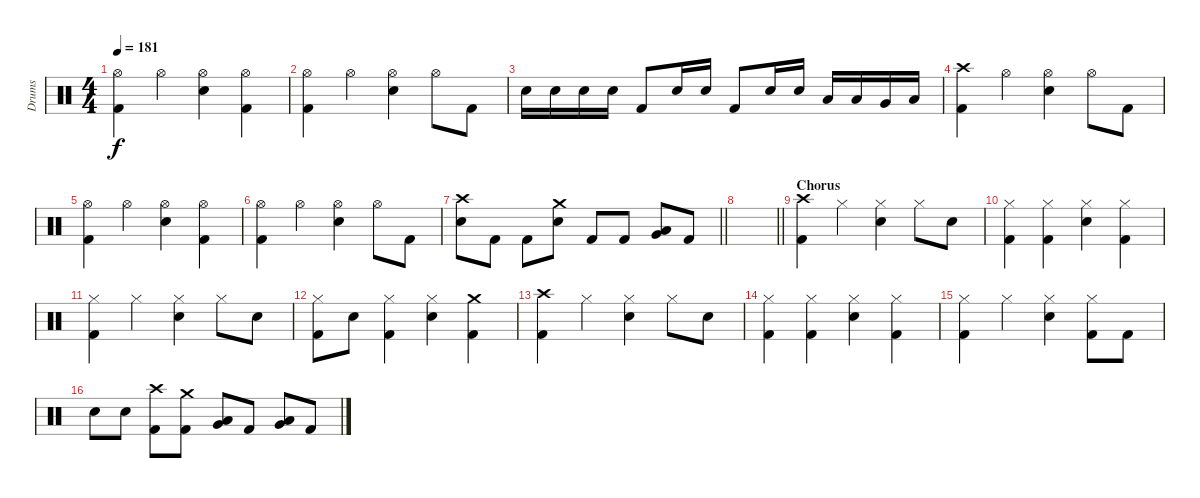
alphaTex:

\track ("Drums" "Drums") {instrument percussion}
\staff {score}
\articulation defaults
\ts (4 4)
\tempo 181
\clef neutral
\ks c
("Hi-Hat (open)" "Kick (hit) 2").4{dy f} "Hi-Hat (open)".4 ("Hi-Hat (open)" "Snare (hit) 2").4 ("Hi-Hat (open)" "Kick (hit) 2").4 |
("Hi-Hat (open)" "Kick (hit) 2").4 "Hi-Hat (open)".4 ("Hi-Hat (open)" "Snare (hit) 2").4 "Hi-Hat (open)".8 "Kick (hit) 2".8 |
"Snare (hit) 2".16 "Snare (hit) 2".16 "Snare (hit) 2".16 "Snare (hit) 2".16 "Kick (hit) 2".8 "Snare (hit) 2".16 "Snare (hit) 2".16 "Kick (hit) 2".8 "Snare (hit) 2".16 "Snare (hit) 2".16 "Low Tom (hit)".16 "Low Tom (hit)".16 "Very Low Tom (hit)".16 "Low Floor Tom (hit)".16 |
("Crash high (hit)" "Kick (hit) 2").4 "Hi-Hat (open)".4 ("Hi-Hat (open)" "Snare (hit) 2").4 "Hi-Hat (open)".8 "Kick (hit) 2".8 |
("Hi-Hat (open)" "Kick (hit) 2").4 "Hi-Hat (open)".4 ("Hi-Hat (open)" "Snare (hit) 2").4 ("Hi-Hat (open)" "Kick (hit) 2").4 |
("Hi-Hat (open)" "Kick (hit) 2").4 "Hi-Hat (open)".4 ("Hi-Hat (open)" "Snare (hit) 2").4 "Hi-Hat (open)".8 "Kick (hit) 2".8 |
\barLineRight lightlight
("Crash high (hit)" "Snare (hit) 2").8 "Kick (hit) 2".8 "Kick (hit) 2".8 ("Crash medium (hit)" "Snare (hit) 2").8 "Kick (hit) 2".8 "Kick (hit) 2".8 ("Very Low Tom (hit)" "Low Tom (hit)").8 "Kick (hit) 2".8 |
\barLineRight lightlight
|
\section ("" "Chorus")
("Crash high (hit)" "Kick (hit) 2").4 "Hi-Hat (closed)".4 ("Hi-Hat (closed)" "Snare (hit) 2").4 "Hi-Hat (closed)".8 "Snare (hit) 2".8 |
("Hi-Hat (closed)" "Kick (hit) 2").4 ("Hi-Hat (closed)" "Kick (hit) 2").4 ("Hi-Hat (closed)" "Snare (hit) 2").4 ("Hi-Hat (closed)" "Kick (hit) 2").4 |
("Hi-Hat (closed)" "Kick (hit) 2").4 "Hi-Hat (closed)".4 ("Hi-Hat (closed)" "Snare (hit) 2").4 "Hi-Hat (closed)".8 "Snare (hit) 2".8 |
("Hi-Hat (closed)" "Kick (hit) 2").8 "Snare (hit) 2".8 ("Hi-Hat (closed)" "Kick (hit) 2").4 ("Hi-Hat (closed)" "Snare (hit) 2").4 ("Crash medium (hit)" "Kick (hit) 2").4 |
("Crash high (hit)" "Kick (hit) 2").4 "Hi-Hat (closed)".4 ("Hi-Hat (closed)" "Snare (hit) 2").4 "Hi-Hat (closed)".8 "Snare (hit) 2".8 |
("Hi-Hat (closed)" "Kick (hit) 2").4 ("Hi-Hat (closed)" "Kick (hit) 2").4 ("Hi-Hat (closed)" "Snare (hit) 2").4 ("Hi-Hat (closed)" "Kick (hit) 2").4 |
("Hi-Hat (closed)" "Kick (hit) 2").4 "Hi-Hat (closed)".4 ("Hi-Hat (closed)" "Snare (hit) 2").4 ("Hi-Hat (closed)" "Kick (hit) 2").8 "Kick (hit) 2".8 |
"Snare (hit) 2".8 "Snare (hit) 2".8 ("Crash high (hit)" "Kick (hit) 2").8 ("Crash medium (hit)" "Kick (hit) 2").8 ("Low Tom (hit)" "Very Low Tom (hit)").8 "Kick (hit) 2".8 ("Low Floor Tom (hit)" "Very Low Tom (hit)").8 "Kick (hit) 2".8
